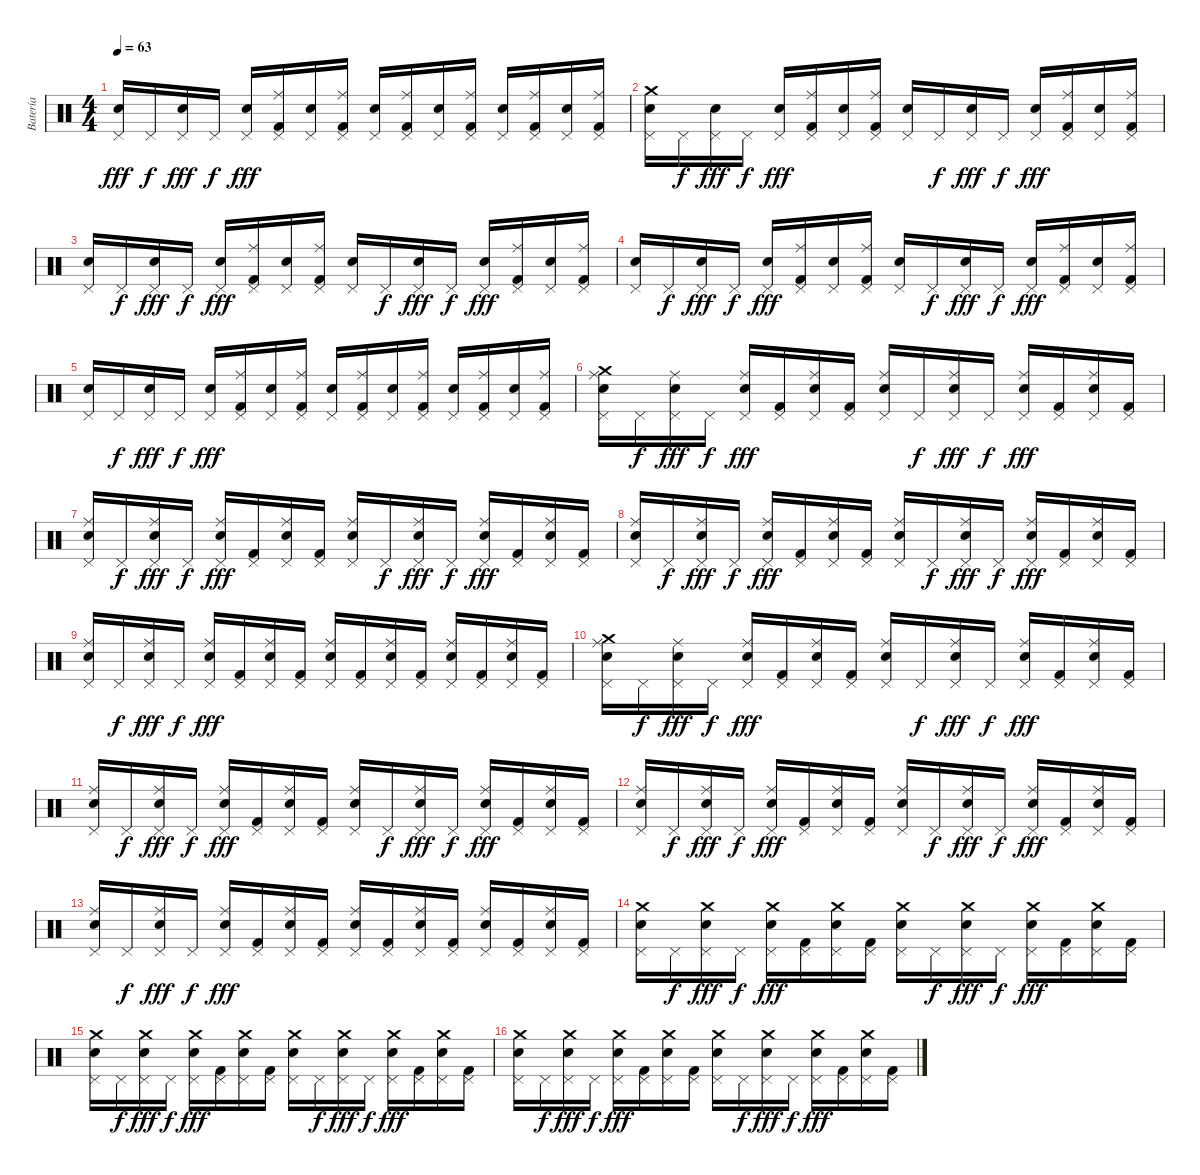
\track ("Batería" "Batería") {instrument percussion}
\staff {score}
\articulation defaults
\ts (4 4)
\tempo 63
\clef neutral
\ks c
("Electric Snare (hit)" "Pedal Hi-Hat (hit)").16{dy fff} "Pedal Hi-Hat (hit)".16{dy f} ("Electric Snare (hit)" "Pedal Hi-Hat (hit)").16{dy fff} "Pedal Hi-Hat (hit)".16{dy f} ("Electric Snare (hit)" "Pedal Hi-Hat (hit)").16{dy fff} ("Kick (hit) 2" "Ride (middle)" "Pedal Hi-Hat (hit)").16 ("Electric Snare (hit)" "Pedal Hi-Hat (hit)").16 ("Kick (hit) 2" "Ride (middle)" "Pedal Hi-Hat (hit)").16 ("Electric Snare (hit)" "Pedal Hi-Hat (hit)").16 ("Kick (hit) 2" "Ride (middle)" "Pedal Hi-Hat (hit)").16 ("Electric Snare (hit)" "Pedal Hi-Hat (hit)").16 ("Kick (hit) 2" "Ride (middle)" "Pedal Hi-Hat (hit)").16 ("Electric Snare (hit)" "Pedal Hi-Hat (hit)").16 ("Kick (hit) 2" "Ride (middle)" "Pedal Hi-Hat (hit)").16 ("Electric Snare (hit)" "Pedal Hi-Hat (hit)").16 ("Kick (hit) 2" "Ride (middle)" "Pedal Hi-Hat (hit)").16 |
("Crash medium (hit)" "Electric Snare (hit)" "Pedal Hi-Hat (hit)").16 "Pedal Hi-Hat (hit)".16{dy f} ("Electric Snare (hit)" "Pedal Hi-Hat (hit)").16{dy fff} "Pedal Hi-Hat (hit)".16{dy f} ("Electric Snare (hit)" "Pedal Hi-Hat (hit)").16{dy fff} ("Kick (hit) 2" "Ride (middle)" "Pedal Hi-Hat (hit)").16 ("Electric Snare (hit)" "Pedal Hi-Hat (hit)").16 ("Kick (hit) 2" "Ride (middle)" "Pedal Hi-Hat (hit)").16 ("Electric Snare (hit)" "Pedal Hi-Hat (hit)").16 "Pedal Hi-Hat (hit)".16{dy f} ("Electric Snare (hit)" "Pedal Hi-Hat (hit)").16{dy fff} "Pedal Hi-Hat (hit)".16{dy f} ("Electric Snare (hit)" "Pedal Hi-Hat (hit)").16{dy fff} ("Kick (hit) 2" "Ride (middle)" "Pedal Hi-Hat (hit)").16 ("Electric Snare (hit)" "Pedal Hi-Hat (hit)").16 ("Kick (hit) 2" "Ride (middle)" "Pedal Hi-Hat (hit)").16 |
("Electric Snare (hit)" "Pedal Hi-Hat (hit)").16 "Pedal Hi-Hat (hit)".16{dy f} ("Electric Snare (hit)" "Pedal Hi-Hat (hit)").16{dy fff} "Pedal Hi-Hat (hit)".16{dy f} ("Electric Snare (hit)" "Pedal Hi-Hat (hit)").16{dy fff} ("Kick (hit) 2" "Ride (middle)" "Pedal Hi-Hat (hit)").16 ("Electric Snare (hit)" "Pedal Hi-Hat (hit)").16 ("Kick (hit) 2" "Ride (middle)" "Pedal Hi-Hat (hit)").16 ("Electric Snare (hit)" "Pedal Hi-Hat (hit)").16 "Pedal Hi-Hat (hit)".16{dy f} ("Electric Snare (hit)" "Pedal Hi-Hat (hit)").16{dy fff} "Pedal Hi-Hat (hit)".16{dy f} ("Electric Snare (hit)" "Pedal Hi-Hat (hit)").16{dy fff} ("Kick (hit) 2" "Ride (middle)" "Pedal Hi-Hat (hit)").16 ("Electric Snare (hit)" "Pedal Hi-Hat (hit)").16 ("Kick (hit) 2" "Ride (middle)" "Pedal Hi-Hat (hit)").16 |
("Electric Snare (hit)" "Pedal Hi-Hat (hit)").16 "Pedal Hi-Hat (hit)".16{dy f} ("Electric Snare (hit)" "Pedal Hi-Hat (hit)").16{dy fff} "Pedal Hi-Hat (hit)".16{dy f} ("Electric Snare (hit)" "Pedal Hi-Hat (hit)").16{dy fff} ("Kick (hit) 2" "Ride (middle)" "Pedal Hi-Hat (hit)").16 ("Electric Snare (hit)" "Pedal Hi-Hat (hit)").16 ("Kick (hit) 2" "Ride (middle)" "Pedal Hi-Hat (hit)").16 ("Electric Snare (hit)" "Pedal Hi-Hat (hit)").16 "Pedal Hi-Hat (hit)".16{dy f} ("Electric Snare (hit)" "Pedal Hi-Hat (hit)").16{dy fff} "Pedal Hi-Hat (hit)".16{dy f} ("Electric Snare (hit)" "Pedal Hi-Hat (hit)").16{dy fff} ("Kick (hit) 2" "Ride (middle)" "Pedal Hi-Hat (hit)").16 ("Electric Snare (hit)" "Pedal Hi-Hat (hit)").16 ("Kick (hit) 2" "Ride (middle)" "Pedal Hi-Hat (hit)").16 |
("Electric Snare (hit)" "Pedal Hi-Hat (hit)").16 "Pedal Hi-Hat (hit)".16{dy f} ("Electric Snare (hit)" "Pedal Hi-Hat (hit)").16{dy fff} "Pedal Hi-Hat (hit)".16{dy f} ("Electric Snare (hit)" "Pedal Hi-Hat (hit)").16{dy fff} ("Kick (hit) 2" "Ride (middle)" "Pedal Hi-Hat (hit)").16 ("Electric Snare (hit)" "Pedal Hi-Hat (hit)").16 ("Kick (hit) 2" "Ride (middle)" "Pedal Hi-Hat (hit)").16 ("Electric Snare (hit)" "Pedal Hi-Hat (hit)").16 ("Kick (hit) 2" "Ride (middle)" "Pedal Hi-Hat (hit)").16 ("Electric Snare (hit)" "Pedal Hi-Hat (hit)").16 ("Kick (hit) 2" "Ride (middle)" "Pedal Hi-Hat (hit)").16 ("Electric Snare (hit)" "Pedal Hi-Hat (hit)").16 ("Kick (hit) 2" "Ride (middle)" "Pedal Hi-Hat (hit)").16 ("Electric Snare (hit)" "Pedal Hi-Hat (hit)").16 ("Kick (hit) 2" "Ride (middle)" "Pedal Hi-Hat (hit)").16 |
("Crash medium (hit)" "Electric Snare (hit)" "Ride (middle)" "Pedal Hi-Hat (hit)").16 "Pedal Hi-Hat (hit)".16{dy f} ("Electric Snare (hit)" "Ride (middle)" "Pedal Hi-Hat (hit)").16{dy fff} "Pedal Hi-Hat (hit)".16{dy f} ("Electric Snare (hit)" "Ride (middle)" "Pedal Hi-Hat (hit)").16{dy fff} ("Kick (hit) 2" "Pedal Hi-Hat (hit)").16 ("Electric Snare (hit)" "Ride (middle)" "Pedal Hi-Hat (hit)").16 ("Kick (hit) 2" "Pedal Hi-Hat (hit)").16 ("Electric Snare (hit)" "Ride (middle)" "Pedal Hi-Hat (hit)").16 "Pedal Hi-Hat (hit)".16{dy f} ("Electric Snare (hit)" "Ride (middle)" "Pedal Hi-Hat (hit)").16{dy fff} "Pedal Hi-Hat (hit)".16{dy f} ("Electric Snare (hit)" "Ride (middle)" "Pedal Hi-Hat (hit)").16{dy fff} ("Kick (hit) 2" "Pedal Hi-Hat (hit)").16 ("Electric Snare (hit)" "Ride (middle)" "Pedal Hi-Hat (hit)").16 ("Kick (hit) 2" "Pedal Hi-Hat (hit)").16 |
("Electric Snare (hit)" "Ride (middle)" "Pedal Hi-Hat (hit)").16 "Pedal Hi-Hat (hit)".16{dy f} ("Electric Snare (hit)" "Ride (middle)" "Pedal Hi-Hat (hit)").16{dy fff} "Pedal Hi-Hat (hit)".16{dy f} ("Electric Snare (hit)" "Ride (middle)" "Pedal Hi-Hat (hit)").16{dy fff} ("Kick (hit) 2" "Pedal Hi-Hat (hit)").16 ("Electric Snare (hit)" "Ride (middle)" "Pedal Hi-Hat (hit)").16 ("Kick (hit) 2" "Pedal Hi-Hat (hit)").16 ("Electric Snare (hit)" "Ride (middle)" "Pedal Hi-Hat (hit)").16 "Pedal Hi-Hat (hit)".16{dy f} ("Electric Snare (hit)" "Ride (middle)" "Pedal Hi-Hat (hit)").16{dy fff} "Pedal Hi-Hat (hit)".16{dy f} ("Electric Snare (hit)" "Ride (middle)" "Pedal Hi-Hat (hit)").16{dy fff} ("Kick (hit) 2" "Pedal Hi-Hat (hit)").16 ("Electric Snare (hit)" "Ride (middle)" "Pedal Hi-Hat (hit)").16 ("Kick (hit) 2" "Pedal Hi-Hat (hit)").16 |
("Electric Snare (hit)" "Ride (middle)" "Pedal Hi-Hat (hit)").16 "Pedal Hi-Hat (hit)".16{dy f} ("Electric Snare (hit)" "Ride (middle)" "Pedal Hi-Hat (hit)").16{dy fff} "Pedal Hi-Hat (hit)".16{dy f} ("Electric Snare (hit)" "Ride (middle)" "Pedal Hi-Hat (hit)").16{dy fff} ("Kick (hit) 2" "Pedal Hi-Hat (hit)").16 ("Electric Snare (hit)" "Ride (middle)" "Pedal Hi-Hat (hit)").16 ("Kick (hit) 2" "Pedal Hi-Hat (hit)").16 ("Electric Snare (hit)" "Ride (middle)" "Pedal Hi-Hat (hit)").16 "Pedal Hi-Hat (hit)".16{dy f} ("Electric Snare (hit)" "Ride (middle)" "Pedal Hi-Hat (hit)").16{dy fff} "Pedal Hi-Hat (hit)".16{dy f} ("Electric Snare (hit)" "Ride (middle)" "Pedal Hi-Hat (hit)").16{dy fff} ("Kick (hit) 2" "Pedal Hi-Hat (hit)").16 ("Electric Snare (hit)" "Ride (middle)" "Pedal Hi-Hat (hit)").16 ("Kick (hit) 2" "Pedal Hi-Hat (hit)").16 |
("Electric Snare (hit)" "Ride (middle)" "Pedal Hi-Hat (hit)").16 "Pedal Hi-Hat (hit)".16{dy f} ("Electric Snare (hit)" "Ride (middle)" "Pedal Hi-Hat (hit)").16{dy fff} "Pedal Hi-Hat (hit)".16{dy f} ("Electric Snare (hit)" "Ride (middle)" "Pedal Hi-Hat (hit)").16{dy fff} ("Kick (hit) 2" "Pedal Hi-Hat (hit)").16 ("Electric Snare (hit)" "Ride (middle)" "Pedal Hi-Hat (hit)").16 ("Kick (hit) 2" "Pedal Hi-Hat (hit)").16 ("Electric Snare (hit)" "Ride (middle)" "Pedal Hi-Hat (hit)").16 ("Kick (hit) 2" "Pedal Hi-Hat (hit)").16 ("Electric Snare (hit)" "Ride (middle)" "Pedal Hi-Hat (hit)").16 ("Kick (hit) 2" "Pedal Hi-Hat (hit)").16 ("Electric Snare (hit)" "Ride (middle)" "Pedal Hi-Hat (hit)").16 ("Kick (hit) 2" "Pedal Hi-Hat (hit)").16 ("Electric Snare (hit)" "Ride (middle)" "Pedal Hi-Hat (hit)").16 ("Kick (hit) 2" "Pedal Hi-Hat (hit)").16 |
("Crash medium (hit)" "Electric Snare (hit)" "Ride (middle)" "Pedal Hi-Hat (hit)").16 "Pedal Hi-Hat (hit)".16{dy f} ("Electric Snare (hit)" "Ride (middle)" "Pedal Hi-Hat (hit)").16{dy fff} "Pedal Hi-Hat (hit)".16{dy f} ("Electric Snare (hit)" "Ride (middle)" "Pedal Hi-Hat (hit)").16{dy fff} ("Kick (hit) 2" "Pedal Hi-Hat (hit)").16 ("Electric Snare (hit)" "Ride (middle)" "Pedal Hi-Hat (hit)").16 ("Kick (hit) 2" "Pedal Hi-Hat (hit)").16 ("Electric Snare (hit)" "Ride (middle)" "Pedal Hi-Hat (hit)").16 "Pedal Hi-Hat (hit)".16{dy f} ("Electric Snare (hit)" "Ride (middle)" "Pedal Hi-Hat (hit)").16{dy fff} "Pedal Hi-Hat (hit)".16{dy f} ("Electric Snare (hit)" "Ride (middle)" "Pedal Hi-Hat (hit)").16{dy fff} ("Kick (hit) 2" "Pedal Hi-Hat (hit)").16 ("Electric Snare (hit)" "Ride (middle)" "Pedal Hi-Hat (hit)").16 ("Kick (hit) 2" "Pedal Hi-Hat (hit)").16 |
("Electric Snare (hit)" "Ride (middle)" "Pedal Hi-Hat (hit)").16 "Pedal Hi-Hat (hit)".16{dy f} ("Electric Snare (hit)" "Ride (middle)" "Pedal Hi-Hat (hit)").16{dy fff} "Pedal Hi-Hat (hit)".16{dy f} ("Electric Snare (hit)" "Ride (middle)" "Pedal Hi-Hat (hit)").16{dy fff} ("Kick (hit) 2" "Pedal Hi-Hat (hit)").16 ("Electric Snare (hit)" "Ride (middle)" "Pedal Hi-Hat (hit)").16 ("Kick (hit) 2" "Pedal Hi-Hat (hit)").16 ("Electric Snare (hit)" "Ride (middle)" "Pedal Hi-Hat (hit)").16 "Pedal Hi-Hat (hit)".16{dy f} ("Electric Snare (hit)" "Ride (middle)" "Pedal Hi-Hat (hit)").16{dy fff} "Pedal Hi-Hat (hit)".16{dy f} ("Electric Snare (hit)" "Ride (middle)" "Pedal Hi-Hat (hit)").16{dy fff} ("Kick (hit) 2" "Pedal Hi-Hat (hit)").16 ("Electric Snare (hit)" "Ride (middle)" "Pedal Hi-Hat (hit)").16 ("Kick (hit) 2" "Pedal Hi-Hat (hit)").16 |
("Electric Snare (hit)" "Ride (middle)" "Pedal Hi-Hat (hit)").16 "Pedal Hi-Hat (hit)".16{dy f} ("Electric Snare (hit)" "Ride (middle)" "Pedal Hi-Hat (hit)").16{dy fff} "Pedal Hi-Hat (hit)".16{dy f} ("Electric Snare (hit)" "Ride (middle)" "Pedal Hi-Hat (hit)").16{dy fff} ("Kick (hit) 2" "Pedal Hi-Hat (hit)").16 ("Electric Snare (hit)" "Ride (middle)" "Pedal Hi-Hat (hit)").16 ("Kick (hit) 2" "Pedal Hi-Hat (hit)").16 ("Electric Snare (hit)" "Ride (middle)" "Pedal Hi-Hat (hit)").16 "Pedal Hi-Hat (hit)".16{dy f} ("Electric Snare (hit)" "Ride (middle)" "Pedal Hi-Hat (hit)").16{dy fff} "Pedal Hi-Hat (hit)".16{dy f} ("Electric Snare (hit)" "Ride (middle)" "Pedal Hi-Hat (hit)").16{dy fff} ("Kick (hit) 2" "Pedal Hi-Hat (hit)").16 ("Electric Snare (hit)" "Ride (middle)" "Pedal Hi-Hat (hit)").16 ("Kick (hit) 2" "Pedal Hi-Hat (hit)").16 |
("Electric Snare (hit)" "Ride (middle)" "Pedal Hi-Hat (hit)").16 "Pedal Hi-Hat (hit)".16{dy f} ("Electric Snare (hit)" "Ride (middle)" "Pedal Hi-Hat (hit)").16{dy fff} "Pedal Hi-Hat (hit)".16{dy f} ("Electric Snare (hit)" "Ride (middle)" "Pedal Hi-Hat (hit)").16{dy fff} ("Kick (hit) 2" "Pedal Hi-Hat (hit)").16 ("Electric Snare (hit)" "Ride (middle)" "Pedal Hi-Hat (hit)").16 ("Kick (hit) 2" "Pedal Hi-Hat (hit)").16 ("Electric Snare (hit)" "Ride (middle)" "Pedal Hi-Hat (hit)").16 ("Kick (hit) 2" "Pedal Hi-Hat (hit)").16 ("Electric Snare (hit)" "Ride (middle)" "Pedal Hi-Hat (hit)").16 ("Kick (hit) 2" "Pedal Hi-Hat (hit)").16 ("Electric Snare (hit)" "Ride (middle)" "Pedal Hi-Hat (hit)").16 ("Kick (hit) 2" "Pedal Hi-Hat (hit)").16 ("Electric Snare (hit)" "Ride (middle)" "Pedal Hi-Hat (hit)").16 ("Kick (hit) 2" "Pedal Hi-Hat (hit)").16 |
("Crash medium (hit)" "Electric Snare (hit)" "Pedal Hi-Hat (hit)").16 "Pedal Hi-Hat (hit)".16{dy f} ("Crash medium (hit)" "Electric Snare (hit)" "Pedal Hi-Hat (hit)").16{dy fff} "Pedal Hi-Hat (hit)".16{dy f} ("Crash medium (hit)" "Electric Snare (hit)" "Pedal Hi-Hat (hit)").16{dy fff} ("Kick (hit) 2" "Pedal Hi-Hat (hit)").16 ("Crash medium (hit)" "Electric Snare (hit)" "Pedal Hi-Hat (hit)").16 ("Kick (hit) 2" "Pedal Hi-Hat (hit)").16 ("Crash medium (hit)" "Electric Snare (hit)" "Pedal Hi-Hat (hit)").16 "Pedal Hi-Hat (hit)".16{dy f} ("Crash medium (hit)" "Electric Snare (hit)" "Pedal Hi-Hat (hit)").16{dy fff} "Pedal Hi-Hat (hit)".16{dy f} ("Crash medium (hit)" "Electric Snare (hit)" "Pedal Hi-Hat (hit)").16{dy fff} ("Kick (hit) 2" "Pedal Hi-Hat (hit)").16 ("Crash medium (hit)" "Electric Snare (hit)" "Pedal Hi-Hat (hit)").16 ("Kick (hit) 2" "Pedal Hi-Hat (hit)").16 |
("Crash medium (hit)" "Electric Snare (hit)" "Pedal Hi-Hat (hit)").16 "Pedal Hi-Hat (hit)".16{dy f} ("Crash medium (hit)" "Electric Snare (hit)" "Pedal Hi-Hat (hit)").16{dy fff} "Pedal Hi-Hat (hit)".16{dy f} ("Crash medium (hit)" "Electric Snare (hit)" "Pedal Hi-Hat (hit)").16{dy fff} ("Kick (hit) 2" "Pedal Hi-Hat (hit)").16 ("Crash medium (hit)" "Electric Snare (hit)" "Pedal Hi-Hat (hit)").16 ("Kick (hit) 2" "Pedal Hi-Hat (hit)").16 ("Crash medium (hit)" "Electric Snare (hit)" "Pedal Hi-Hat (hit)").16 "Pedal Hi-Hat (hit)".16{dy f} ("Crash medium (hit)" "Electric Snare (hit)" "Pedal Hi-Hat (hit)").16{dy fff} "Pedal Hi-Hat (hit)".16{dy f} ("Crash medium (hit)" "Electric Snare (hit)" "Pedal Hi-Hat (hit)").16{dy fff} ("Kick (hit) 2" "Pedal Hi-Hat (hit)").16 ("Crash medium (hit)" "Electric Snare (hit)" "Pedal Hi-Hat (hit)").16 ("Kick (hit) 2" "Pedal Hi-Hat (hit)").16 |
("Crash medium (hit)" "Electric Snare (hit)" "Pedal Hi-Hat (hit)").16 "Pedal Hi-Hat (hit)".16{dy f} ("Crash medium (hit)" "Electric Snare (hit)" "Pedal Hi-Hat (hit)").16{dy fff} "Pedal Hi-Hat (hit)".16{dy f} ("Crash medium (hit)" "Electric Snare (hit)" "Pedal Hi-Hat (hit)").16{dy fff} ("Kick (hit) 2" "Pedal Hi-Hat (hit)").16 ("Crash medium (hit)" "Electric Snare (hit)" "Pedal Hi-Hat (hit)").16 ("Kick (hit) 2" "Pedal Hi-Hat (hit)").16 ("Crash medium (hit)" "Electric Snare (hit)" "Pedal Hi-Hat (hit)").16 "Pedal Hi-Hat (hit)".16{dy f} ("Crash medium (hit)" "Electric Snare (hit)" "Pedal Hi-Hat (hit)").16{dy fff} "Pedal Hi-Hat (hit)".16{dy f} ("Crash medium (hit)" "Electric Snare (hit)" "Pedal Hi-Hat (hit)").16{dy fff} ("Kick (hit) 2" "Pedal Hi-Hat (hit)").16 ("Crash medium (hit)" "Electric Snare (hit)" "Pedal Hi-Hat (hit)").16 ("Kick (hit) 2" "Pedal Hi-Hat (hit)").16
